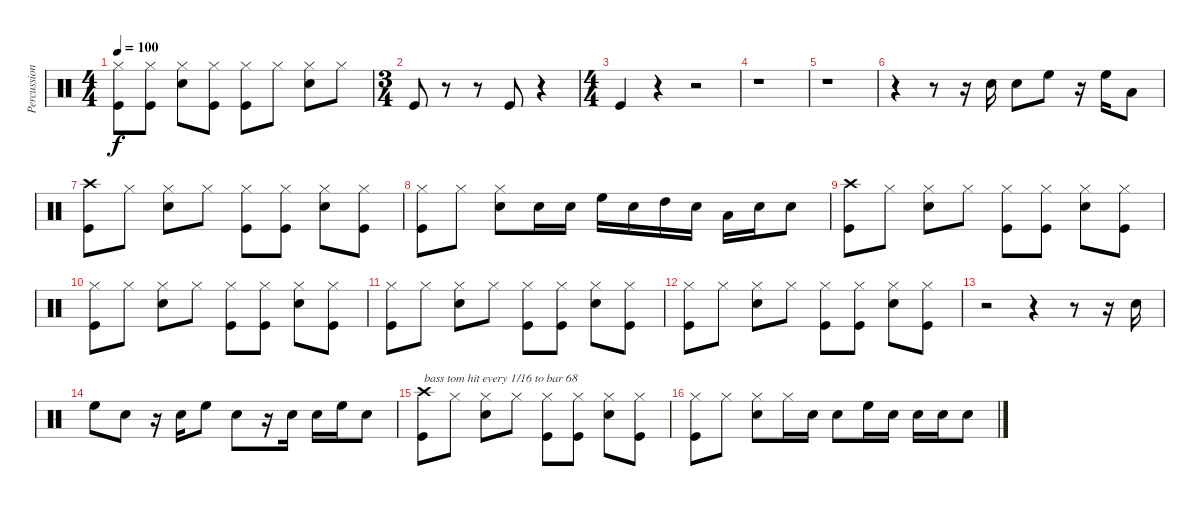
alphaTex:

\track ("Percussion" "Percussion") {instrument percussion}
\staff {score}
\articulation defaults
\ts (4 4)
\tempo 100
\clef neutral
\ks c
("Hi-Hat (closed)" "Kick (hit)").8{dy f} ("Hi-Hat (closed)" "Kick (hit)").8 ("Hi-Hat (closed)" "Snare (hit) 2").8 ("Hi-Hat (closed)" "Kick (hit)").8 ("Hi-Hat (closed)" "Kick (hit)").8 "Hi-Hat (closed)".8 ("Hi-Hat (closed)" "Snare (hit) 2").8 "Hi-Hat (closed)".8 |
\ts (3 4)
"Kick (hit)".8 r.8 r.8 "Kick (hit)".8 r.4 |
\ts (4 4)
"Kick (hit)".4 r.4 r.2 |
r.1 |
r.1 |
r.4 r.8 r.16 "Snare (hit) 2".16 "Snare (hit) 2".8 "High Floor Tom (hit)".8 r.16 "High Floor Tom (hit)".16 "Low Tom (hit)".8 |
("Crash high (hit)" "Kick (hit)").8 "Hi-Hat (closed)".8 ("Hi-Hat (closed)" "Snare (hit) 2").8 "Hi-Hat (closed)".8 ("Hi-Hat (closed)" "Kick (hit)").8 ("Hi-Hat (closed)" "Kick (hit)").8 ("Hi-Hat (closed)" "Snare (hit) 2").8 ("Hi-Hat (closed)" "Kick (hit)").8 |
("Hi-Hat (closed)" "Kick (hit)").8 "Hi-Hat (closed)".8 ("Hi-Hat (closed)" "Snare (hit) 2").8 "Snare (hit) 2".16 "Snare (hit) 2".16 "High Floor Tom (hit)".16 "Snare (hit) 2".16 "High Tom (hit)".16 "Snare (hit) 2".16 "Low Tom (hit)".16 "Snare (hit) 2".16 "Snare (hit) 2".8 |
("Crash high (hit)" "Kick (hit)").8 "Hi-Hat (closed)".8 ("Hi-Hat (closed)" "Snare (hit) 2").8 "Hi-Hat (closed)".8 ("Hi-Hat (closed)" "Kick (hit)").8 ("Hi-Hat (closed)" "Kick (hit)").8 ("Hi-Hat (closed)" "Snare (hit) 2").8 ("Hi-Hat (closed)" "Kick (hit)").8 |
("Hi-Hat (closed)" "Kick (hit)").8 "Hi-Hat (closed)".8 ("Hi-Hat (closed)" "Snare (hit) 2").8 "Hi-Hat (closed)".8 ("Hi-Hat (closed)" "Kick (hit)").8 ("Hi-Hat (closed)" "Kick (hit)").8 ("Hi-Hat (closed)" "Snare (hit) 2").8 ("Hi-Hat (closed)" "Kick (hit)").8 |
("Hi-Hat (closed)" "Kick (hit)").8 "Hi-Hat (closed)".8 ("Hi-Hat (closed)" "Snare (hit) 2").8 "Hi-Hat (closed)".8 ("Hi-Hat (closed)" "Kick (hit)").8 ("Hi-Hat (closed)" "Kick (hit)").8 ("Hi-Hat (closed)" "Snare (hit) 2").8 ("Hi-Hat (closed)" "Kick (hit)").8 |
("Hi-Hat (closed)" "Kick (hit)").8 "Hi-Hat (closed)".8 ("Hi-Hat (closed)" "Snare (hit) 2").8 "Hi-Hat (closed)".8 ("Hi-Hat (closed)" "Kick (hit)").8 ("Hi-Hat (closed)" "Kick (hit)").8 ("Hi-Hat (closed)" "Snare (hit) 2").8 ("Hi-Hat (closed)" "Kick (hit)").8 |
r.2 r.4 r.8 r.16 "Snare (hit) 2".16 |
"High Floor Tom (hit)".8 "Snare (hit) 2".8 r.16 "Snare (hit) 2".16 "High Floor Tom (hit)".8 "Snare (hit) 2".8 r.16 "Snare (hit) 2".16 "Snare (hit) 2".16 "High Floor Tom (hit)".16 "Snare (hit) 2".8 |
("Crash high (hit)" "Kick (hit)").8{txt "bass tom hit every 1/16 to bar 68"} "Hi-Hat (closed)".8 ("Hi-Hat (closed)" "Snare (hit) 2").8 "Hi-Hat (closed)".8 ("Hi-Hat (closed)" "Kick (hit)").8 ("Hi-Hat (closed)" "Kick (hit)").8 ("Hi-Hat (closed)" "Snare (hit) 2").8 ("Hi-Hat (closed)" "Kick (hit)").8 |
("Hi-Hat (closed)" "Kick (hit)").8 "Hi-Hat (closed)".8 ("Hi-Hat (closed)" "Snare (hit) 2").8 "Hi-Hat (closed)".16 "Snare (hit) 2".16 "Snare (hit) 2".8 "High Floor Tom (hit)".16 "Snare (hit) 2".16 "Snare (hit) 2".16 "Snare (hit) 2".16 "Snare (hit) 2".8
